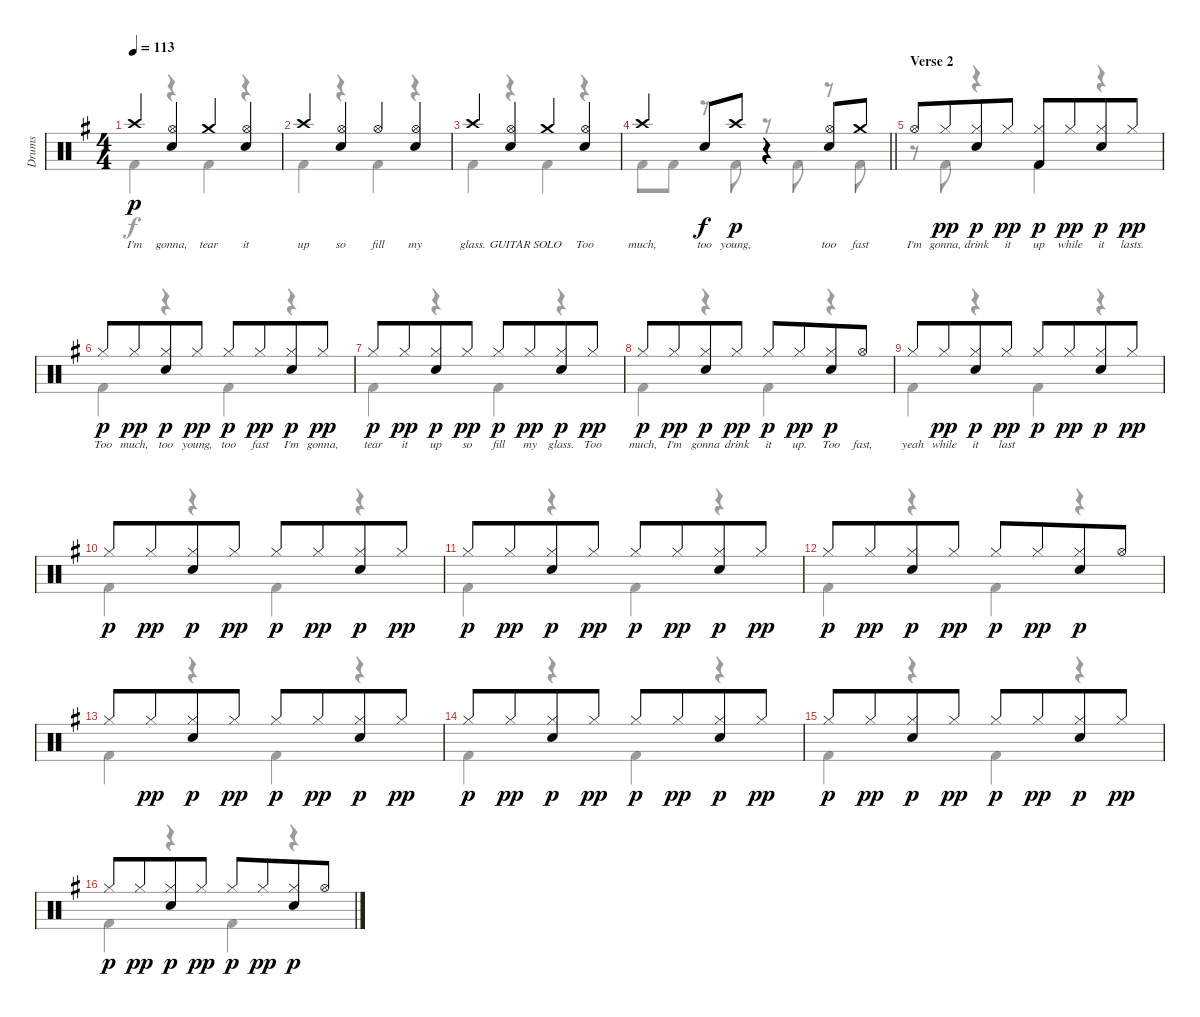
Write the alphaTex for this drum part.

\track ("Drums" "Drums") {instrument percussion}
\staff {score}
\articulation defaults
\voice
\ts (4 4)
\tempo 113
\clef neutral
\ks g "Crash high (hit)".4{lyrics (0 "I'm") lyrics (1 "") lyrics (2 "") lyrics (3 "") lyrics (4 "") dy p}
("Hi-Hat (open)" "Electric Snare (hit)").4{lyrics (0 "gonna,") lyrics (1 "") lyrics (2 "") lyrics (3 "") lyrics (4 "")} "Crash medium (hit)".4{lyrics (0 "tear") lyrics (1 "") lyrics (2 "") lyrics (3 "") lyrics (4 "")} ("Hi-Hat (open)" "Electric Snare (hit)").4{lyrics (0 "it") lyrics (1 "") lyrics (2 "") lyrics (3 "") lyrics (4 "")} |
"Crash high (hit)".4{lyrics (0 "up") lyrics (1 "") lyrics (2 "") lyrics (3 "") lyrics (4 "")} ("Hi-Hat (open)" "Electric Snare (hit)").4{lyrics (0 "so") lyrics (1 "") lyrics (2 "") lyrics (3 "") lyrics (4 "")} "Hi-Hat (open)".4{lyrics (0 "fill") lyrics (1 "") lyrics (2 "") lyrics (3 "") lyrics (4 "")} ("Hi-Hat (open)" "Electric Snare (hit)").4{lyrics (0 "my") lyrics (1 "") lyrics (2 "") lyrics (3 "") lyrics (4 "")} |
"Crash high (hit)".4{lyrics (0 "glass.") lyrics (1 "") lyrics (2 "") lyrics (3 "") lyrics (4 "")} ("Hi-Hat (open)" "Electric Snare (hit)").4{lyrics (0 "GUITAR") lyrics (1 "") lyrics (2 "") lyrics (3 "") lyrics (4 "")} "Crash medium (hit)".4{lyrics (0 "SOLO") lyrics (1 "") lyrics (2 "") lyrics (3 "") lyrics (4 "")} ("Hi-Hat (open)" "Electric Snare (hit)").4{lyrics (0 "Too") lyrics (1 "") lyrics (2 "") lyrics (3 "") lyrics (4 "")} |
\barLineRight lightlight "Crash high (hit)".4{lyrics (0 "much,") lyrics (1 "") lyrics (2 "") lyrics (3 "") lyrics (4 "")} "Electric Snare (hit)".8{lyrics (0 "too") lyrics (1 "") lyrics (2 "") lyrics (3 "") lyrics (4 "") dy f} "Crash high (hit)".8{lyrics (0 "young,") lyrics (1 "") lyrics (2 "") lyrics (3 "") lyrics (4 "") dy p}
r.4 ("Electric Snare (hit)" "Hi-Hat (open)").8{lyrics (0 "too") lyrics (1 "") lyrics (2 "") lyrics (3 "") lyrics (4 "")} "Crash medium (hit)".8{lyrics (0 "fast") lyrics (1 "") lyrics (2 "") lyrics (3 "") lyrics (4 "")} |
\section ("" "Verse 2")
"Hi-Hat (open)".8{lyrics (0 "I'm") lyrics (1 "") lyrics (2 "") lyrics (3 "") lyrics (4 "")} "Hi-Hat (closed)".8{lyrics (0 "gonna,") lyrics (1 "") lyrics (2 "") lyrics (3 "") lyrics (4 "") dy pp beam merge} ("Hi-Hat (closed)" "Electric Snare (hit)").8{lyrics (0 "drink") lyrics (1 "") lyrics (2 "") lyrics (3 "") lyrics (4 "") dy p} "Hi-Hat (closed)".8{lyrics (0 "it") lyrics (1 "") lyrics (2 "") lyrics (3 "") lyrics (4 "") dy pp} ("Hi-Hat (closed)" "Kick (hit) 2").8{lyrics (0 "up") lyrics (1 "") lyrics (2 "") lyrics (3 "") lyrics (4 "") dy p} "Hi-Hat (closed)".8{lyrics (0 "while") lyrics (1 "") lyrics (2 "") lyrics (3 "") lyrics (4 "") dy pp beam merge} ("Hi-Hat (closed)" "Electric Snare (hit)").8{lyrics (0 "it") lyrics (1 "") lyrics (2 "") lyrics (3 "") lyrics (4 "") dy p} "Hi-Hat (closed)".8{lyrics (0 "lasts.") lyrics (1 "") lyrics (2 "") lyrics (3 "") lyrics (4 "") dy pp} |
"Hi-Hat (closed)".8{lyrics (0 "Too") lyrics (1 "") lyrics (2 "") lyrics (3 "") lyrics (4 "") dy p} "Hi-Hat (closed)".8{lyrics (0 "much,") lyrics (1 "") lyrics (2 "") lyrics (3 "") lyrics (4 "") dy pp beam merge} ("Hi-Hat (closed)" "Electric Snare (hit)").8{lyrics (0 "too") lyrics (1 "") lyrics (2 "") lyrics (3 "") lyrics (4 "") dy p} "Hi-Hat (closed)".8{lyrics (0 "young,") lyrics (1 "") lyrics (2 "") lyrics (3 "") lyrics (4 "") dy pp} "Hi-Hat (closed)".8{lyrics (0 "too") lyrics (1 "") lyrics (2 "") lyrics (3 "") lyrics (4 "") dy p} "Hi-Hat (closed)".8{lyrics (0 "fast") lyrics (1 "") lyrics (2 "") lyrics (3 "") lyrics (4 "") dy pp beam merge} ("Hi-Hat (closed)" "Electric Snare (hit)").8{lyrics (0 "I'm") lyrics (1 "") lyrics (2 "") lyrics (3 "") lyrics (4 "") dy p} "Hi-Hat (closed)".8{lyrics (0 "gonna,") lyrics (1 "") lyrics (2 "") lyrics (3 "") lyrics (4 "") dy pp} |
"Hi-Hat (closed)".8{lyrics (0 "tear") lyrics (1 "") lyrics (2 "") lyrics (3 "") lyrics (4 "") dy p} "Hi-Hat (closed)".8{lyrics (0 "it") lyrics (1 "") lyrics (2 "") lyrics (3 "") lyrics (4 "") dy pp beam merge} ("Hi-Hat (closed)" "Electric Snare (hit)").8{lyrics (0 "up") lyrics (1 "") lyrics (2 "") lyrics (3 "") lyrics (4 "") dy p} "Hi-Hat (closed)".8{lyrics (0 "so") lyrics (1 "") lyrics (2 "") lyrics (3 "") lyrics (4 "") dy pp} "Hi-Hat (closed)".8{lyrics (0 "fill") lyrics (1 "") lyrics (2 "") lyrics (3 "") lyrics (4 "") dy p} "Hi-Hat (closed)".8{lyrics (0 "my") lyrics (1 "") lyrics (2 "") lyrics (3 "") lyrics (4 "") dy pp beam merge} ("Hi-Hat (closed)" "Electric Snare (hit)").8{lyrics (0 "glass.") lyrics (1 "") lyrics (2 "") lyrics (3 "") lyrics (4 "") dy p} "Hi-Hat (closed)".8{lyrics (0 "Too") lyrics (1 "") lyrics (2 "") lyrics (3 "") lyrics (4 "") dy pp} |
"Hi-Hat (closed)".8{lyrics (0 "much,") lyrics (1 "") lyrics (2 "") lyrics (3 "") lyrics (4 "") dy p} "Hi-Hat (closed)".8{lyrics (0 "I'm") lyrics (1 "") lyrics (2 "") lyrics (3 "") lyrics (4 "") dy pp beam merge} ("Hi-Hat (closed)" "Electric Snare (hit)").8{lyrics (0 "gonna") lyrics (1 "") lyrics (2 "") lyrics (3 "") lyrics (4 "") dy p} "Hi-Hat (closed)".8{lyrics (0 "drink") lyrics (1 "") lyrics (2 "") lyrics (3 "") lyrics (4 "") dy pp} "Hi-Hat (closed)".8{lyrics (0 "it") lyrics (1 "") lyrics (2 "") lyrics (3 "") lyrics (4 "") dy p} "Hi-Hat (closed)".8{lyrics (0 "up.") lyrics (1 "") lyrics (2 "") lyrics (3 "") lyrics (4 "") dy pp beam merge} ("Hi-Hat (closed)" "Electric Snare (hit)").8{lyrics (0 "Too") lyrics (1 "") lyrics (2 "") lyrics (3 "") lyrics (4 "") dy p} "Hi-Hat (open)".8{lyrics (0 "fast,") lyrics (1 "") lyrics (2 "") lyrics (3 "") lyrics (4 "")} |
"Hi-Hat (closed)".8{lyrics (0 "yeah") lyrics (1 "") lyrics (2 "") lyrics (3 "") lyrics (4 "")} "Hi-Hat (closed)".8{lyrics (0 "while") lyrics (1 "") lyrics (2 "") lyrics (3 "") lyrics (4 "") dy pp beam merge} ("Hi-Hat (closed)" "Electric Snare (hit)").8{lyrics (0 "it") lyrics (1 "") lyrics (2 "") lyrics (3 "") lyrics (4 "") dy p} "Hi-Hat (closed)".8{lyrics (0 "last") lyrics (1 "") lyrics (2 "") lyrics (3 "") lyrics (4 "") dy pp} "Hi-Hat (closed)".8{dy p} "Hi-Hat (closed)".8{dy pp beam merge} ("Hi-Hat (closed)" "Electric Snare (hit)").8{dy p} "Hi-Hat (closed)".8{dy pp} |
"Hi-Hat (closed)".8{dy p} "Hi-Hat (closed)".8{dy pp beam merge} ("Hi-Hat (closed)" "Electric Snare (hit)").8{dy p} "Hi-Hat (closed)".8{dy pp} "Hi-Hat (closed)".8{dy p} "Hi-Hat (closed)".8{dy pp beam merge} ("Hi-Hat (closed)" "Electric Snare (hit)").8{dy p} "Hi-Hat (closed)".8{dy pp} |
"Hi-Hat (closed)".8{dy p} "Hi-Hat (closed)".8{dy pp beam merge} ("Hi-Hat (closed)" "Electric Snare (hit)").8{dy p} "Hi-Hat (closed)".8{dy pp} "Hi-Hat (closed)".8{dy p} "Hi-Hat (closed)".8{dy pp beam merge} ("Hi-Hat (closed)" "Electric Snare (hit)").8{dy p} "Hi-Hat (closed)".8{dy pp} |
"Hi-Hat (closed)".8{dy p} "Hi-Hat (closed)".8{dy pp beam merge} ("Hi-Hat (closed)" "Electric Snare (hit)").8{dy p} "Hi-Hat (closed)".8{dy pp} "Hi-Hat (closed)".8{dy p} "Hi-Hat (closed)".8{dy pp beam merge} ("Hi-Hat (closed)" "Electric Snare (hit)").8{dy p} "Hi-Hat (open)".8 |
"Hi-Hat (closed)".8 "Hi-Hat (closed)".8{dy pp beam merge} ("Hi-Hat (closed)" "Electric Snare (hit)").8{dy p} "Hi-Hat (closed)".8{dy pp} "Hi-Hat (closed)".8{dy p} "Hi-Hat (closed)".8{dy pp beam merge} ("Hi-Hat (closed)" "Electric Snare (hit)").8{dy p} "Hi-Hat (closed)".8{dy pp} |
"Hi-Hat (closed)".8{dy p} "Hi-Hat (closed)".8{dy pp beam merge} ("Hi-Hat (closed)" "Electric Snare (hit)").8{dy p} "Hi-Hat (closed)".8{dy pp} "Hi-Hat (closed)".8{dy p} "Hi-Hat (closed)".8{dy pp beam merge} ("Hi-Hat (closed)" "Electric Snare (hit)").8{dy p} "Hi-Hat (closed)".8{dy pp} |
"Hi-Hat (closed)".8{dy p} "Hi-Hat (closed)".8{dy pp beam merge} ("Hi-Hat (closed)" "Electric Snare (hit)").8{dy p} "Hi-Hat (closed)".8{dy pp} "Hi-Hat (closed)".8{dy p} "Hi-Hat (closed)".8{dy pp beam merge} ("Hi-Hat (closed)" "Electric Snare (hit)").8{dy p} "Hi-Hat (closed)".8{dy pp} |
"Hi-Hat (closed)".8{dy p} "Hi-Hat (closed)".8{dy pp beam merge} ("Hi-Hat (closed)" "Electric Snare (hit)").8{dy p} "Hi-Hat (closed)".8{dy pp} "Hi-Hat (closed)".8{dy p} "Hi-Hat (closed)".8{dy pp beam merge} ("Hi-Hat (closed)" "Electric Snare (hit)").8{dy p} "Hi-Hat (open)".8
\voice
\clef neutral
\ottava regular
\simile none
\ks g "Kick (hit) 2".4{dy f}
r.4 "Kick (hit) 2".4 r.4 |
"Kick (hit) 2".4 r.4 "Kick (hit) 2".4 r.4 |
"Kick (hit) 2".4 r.4 "Kick (hit) 2".4 r.4 |
\barLineRight lightlight "Kick (hit) 2".8 "Kick (hit) 2".8
r.8 "Kick (hit) 2".8 r.8 "Kick (hit) 2".8 r.8 "Kick (hit) 2".8 |
r.8 "Kick (hit) 2".8 r.4 "Kick (hit) 2".4 r.4 |
"Kick (hit) 2".4 r.4 "Kick (hit) 2".4 r.4 |
"Kick (hit) 2".4 r.4 "Kick (hit) 2".4 r.4 |
"Kick (hit) 2".4 r.4 "Kick (hit) 2".4 r.4 |
"Kick (hit) 2".4 r.4 "Kick (hit) 2".4 r.4 |
"Kick (hit) 2".4 r.4 "Kick (hit) 2".4 r.4 |
"Kick (hit) 2".4 r.4 "Kick (hit) 2".4 r.4 |
"Kick (hit) 2".4 r.4 "Kick (hit) 2".4 r.4 |
"Kick (hit) 2".4 r.4 "Kick (hit) 2".4 r.4 |
"Kick (hit) 2".4 r.4 "Kick (hit) 2".4 r.4 |
"Kick (hit) 2".4 r.4 "Kick (hit) 2".4 r.4 |
"Kick (hit) 2".4 r.4 "Kick (hit) 2".4 r.4
